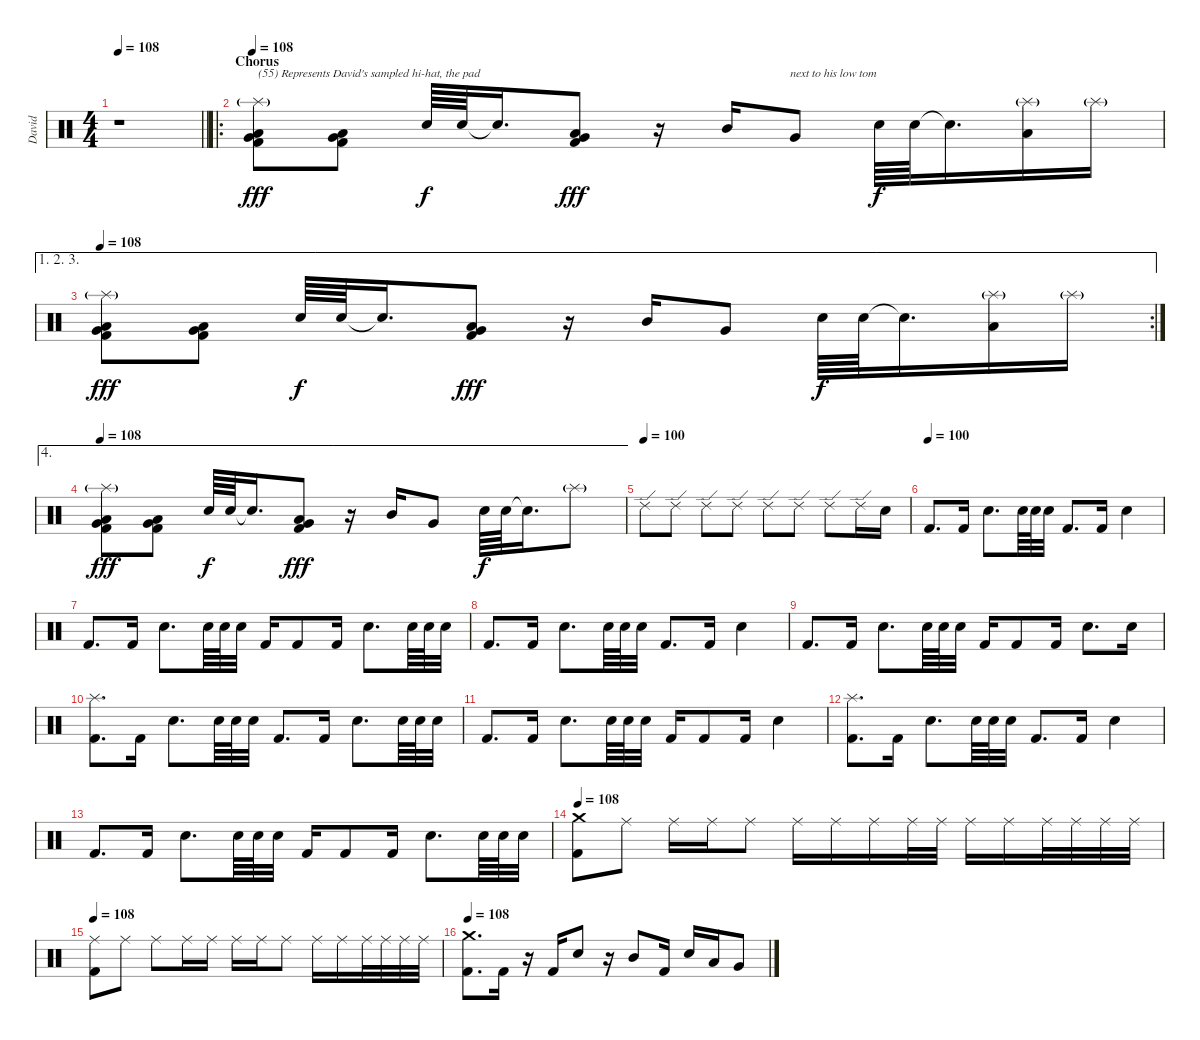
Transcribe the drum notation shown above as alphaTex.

\track ("David" "David") {instrument percussion}
\staff {score}
\articulation defaults
\ts (4 4)
\tempo 108
\clef neutral
\barLineRight lightlight
\ks c
r.1{dy f} |
\ro
\section ("" "Chorus")
\tempo 108
("Splash (hit)"{g} "Low Tom (hit)" "Very Low Tom (hit)" "Kick (hit) 2").8{txt "(55) Represents David's sampled hi-hat, the pad  " dy fff} ("Low Tom (hit)" "Very Low Tom (hit)" "Kick (hit) 2").8 "Snare (hit) 2".64{dy f} "Snare (hit) 2".64 "Snare (hit)"{t}.16{d} ("Low Tom (hit)" "Very Low Tom (hit)" "Kick (hit) 2").8{dy fff} r.16 "Mid Tom (hit)".16{txt "                     next to his low tom"} "Very Low Tom (hit)".8 "Snare (hit) 2".64{dy f} "Snare (hit) 2".64 "Snare (hit)"{t}.16{d} ("Splash (hit)"{g} "Low Floor Tom (hit)").16 "Splash (hit)"{g}.16 |
\ae (1 2 3)
\rc 2
\tempo 108
("Splash (hit)"{g} "Low Tom (hit)" "Very Low Tom (hit)" "Kick (hit) 2").8{dy fff} ("Low Tom (hit)" "Very Low Tom (hit)" "Kick (hit) 2").8 "Snare (hit) 2".64{dy f} "Snare (hit) 2".64 "Snare (hit)"{t}.16{d} ("Low Tom (hit)" "Very Low Tom (hit)" "Kick (hit) 2").8{dy fff} r.16 "Mid Tom (hit)".16 "Very Low Tom (hit)".8 "Snare (hit) 2".64{dy f} "Snare (hit) 2".64 "Snare (hit)"{t}.16{d} ("Splash (hit)"{g} "Low Floor Tom (hit)").16 "Splash (hit)"{g}.16 |
\ae 4
\tempo 108
("Splash (hit)"{g} "Low Tom (hit)" "Very Low Tom (hit)" "Kick (hit) 2").8{dy fff} ("Low Tom (hit)" "Very Low Tom (hit)" "Kick (hit) 2").8 "Snare (hit) 2".64{dy f} "Snare (hit) 2".64 "Snare (hit)"{t}.16{d} ("Low Tom (hit)" "Very Low Tom (hit)" "Kick (hit) 2").8{dy fff} r.16 "Mid Tom (hit)".16 "Very Low Tom (hit)".8 "Snare (hit) 2".64{dy f} "Snare (hit) 2".64 "Snare (hit)"{t}.16{d} "Splash (hit)"{g}.8 |
\tempo (100)
"Ride (edge) 2".8{volume 12} "Ride (edge) 2".8 "Ride (edge) 2".8 "Ride (edge) 2".8 "Ride (edge) 2".8 "Ride (edge) 2".8 "Ride (edge) 2".8 "Ride (edge) 2".16 "Snare (hit) 2".16 |
\tempo (100)
"Kick (hit) 2".8{d} "Kick (hit) 2".16 "Snare (hit) 2".8{d} "Snare (hit) 2".64 "Snare (hit) 2".64 "Snare (hit) 2".32 "Kick (hit) 2".8{d} "Kick (hit) 2".16 "Snare (hit) 2".4 |
"Kick (hit) 2".8{d} "Kick (hit) 2".16 "Snare (hit) 2".8{d} "Snare (hit) 2".64 "Snare (hit) 2".64 "Snare (hit) 2".32 "Kick (hit) 2".16 "Kick (hit) 2".8 "Kick (hit) 2".16 "Snare (hit) 2".8{d} "Snare (hit) 2".64 "Snare (hit) 2".64 "Snare (hit) 2".32 |
"Kick (hit) 2".8{d} "Kick (hit) 2".16 "Snare (hit) 2".8{d} "Snare (hit) 2".64 "Snare (hit) 2".64 "Snare (hit) 2".32 "Kick (hit) 2".8{d} "Kick (hit) 2".16 "Snare (hit) 2".4 |
"Kick (hit) 2".8{d} "Kick (hit) 2".16 "Snare (hit) 2".8{d} "Snare (hit) 2".64 "Snare (hit) 2".64 "Snare (hit) 2".32 "Kick (hit) 2".16 "Kick (hit) 2".8 "Kick (hit) 2".16 "Snare (hit) 2".8{d} "Snare (hit) 2".16 |
("Splash (hit)" "Kick (hit) 2").8{d} "Kick (hit) 2".16 "Snare (hit) 2".8{d} "Snare (hit) 2".64 "Snare (hit) 2".64 "Snare (hit) 2".32 "Kick (hit) 2".8{d} "Kick (hit) 2".16 "Snare (hit) 2".8{d} "Snare (hit) 2".64 "Snare (hit) 2".64 "Snare (hit) 2".32 |
"Kick (hit) 2".8{d} "Kick (hit) 2".16 "Snare (hit) 2".8{d} "Snare (hit) 2".64 "Snare (hit) 2".64 "Snare (hit) 2".32 "Kick (hit) 2".16 "Kick (hit) 2".8 "Kick (hit) 2".16 "Snare (hit) 2".4 |
("Splash (hit)" "Kick (hit) 2").8{d} "Kick (hit) 2".16 "Snare (hit) 2".8{d} "Snare (hit) 2".64 "Snare (hit) 2".64 "Snare (hit) 2".32 "Kick (hit) 2".8{d} "Kick (hit) 2".16 "Snare (hit) 2".4 |
"Kick (hit) 2".8{d} "Kick (hit) 2".16 "Snare (hit) 2".8{d} "Snare (hit) 2".64 "Snare (hit) 2".64 "Snare (hit) 2".32 "Kick (hit) 2".16 "Kick (hit) 2".8 "Kick (hit) 2".16 "Snare (hit) 2".8{d} "Snare (hit) 2".64 "Snare (hit) 2".64 "Snare (hit) 2".32 |
\tempo 108
("Crash medium (hit)" "Kick (hit) 2").8{volume 14} "Ride (middle)".8 "Ride (middle)".16 "Ride (middle)".16 "Ride (middle)".8 "Ride (middle)".16 "Ride (middle)".16 "Ride (middle)".16 "Ride (middle)".32 "Ride (middle)".32 "Ride (middle)".16 "Ride (middle)".16 "Ride (middle)".32 "Ride (middle)".32 "Ride (middle)".32 "Ride (middle)".32 |
\tempo 108
("Ride (middle)" "Kick (hit) 2").8 "Ride (middle)".8 "Ride (middle)".8 "Ride (middle)".16 "Ride (middle)".16 "Ride (middle)".16 "Ride (middle)".16 "Ride (middle)".8 "Ride (middle)".16 "Ride (middle)".16 "Ride (middle)".32 "Ride (middle)".32 "Ride (middle)".32 "Ride (middle)".32 |
\tempo 108
("Crash medium (hit)" "Kick (hit) 2").8{d} "Kick (hit) 2".16 r.16 "Kick (hit) 2".16 "Snare (hit) 2".8 r.16 "Mid Tom (hit)".8 "Kick (hit) 2".16 "Snare (hit) 2".16 "Low Tom (hit)".16 "Very Low Tom (hit)".8
